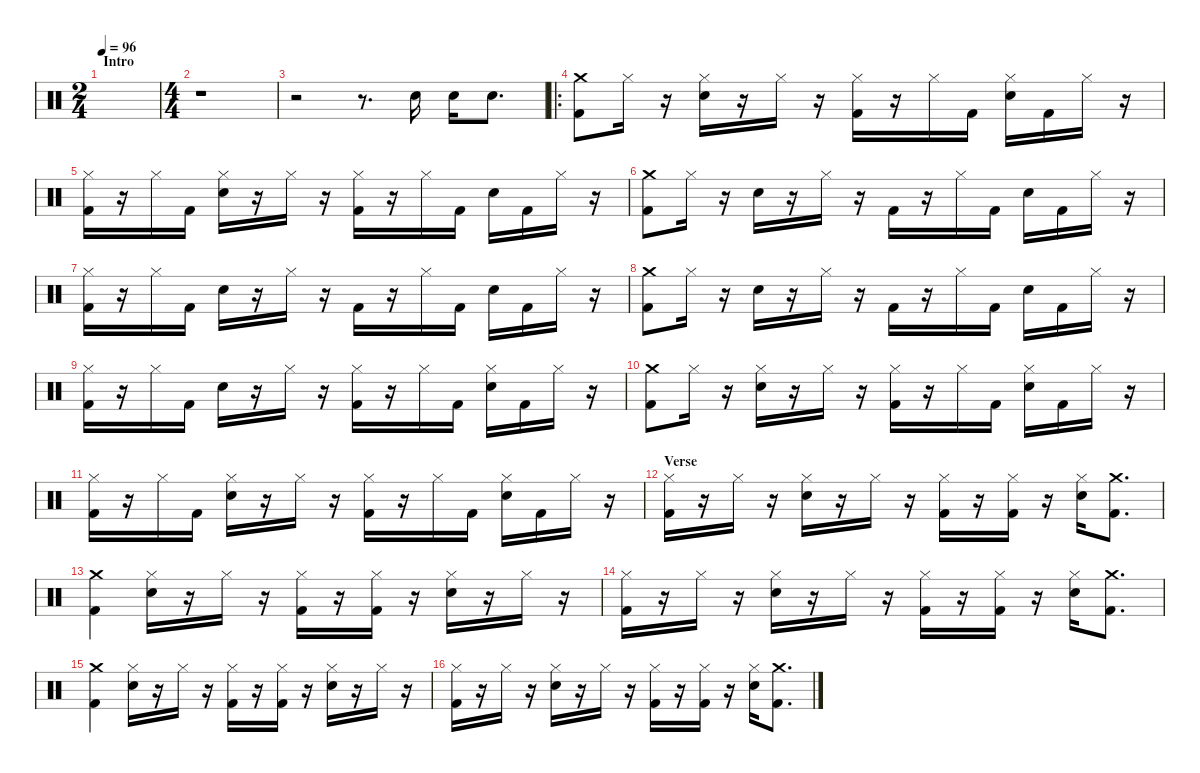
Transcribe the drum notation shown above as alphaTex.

\hideDynamics
\bracketExtendMode nobrackets
\singleTrackTrackNamePolicy hidden
\multiTrackTrackNamePolicy hidden
\firstSystemTrackNameMode fullname
\firstSystemTrackNameOrientation horizontal
\otherSystemsTrackNameOrientation horizontal
\track ("Drumkit" "Drums") {instrument percussion}
\staff {score}
\articulation defaults
\ts (2 4)
\section ("" "Intro")
\tempo 96
\clef neutral
\ks c
|
\ts (4 4)
r.1{beam Down} |
r.2{beam Down} r.8{d beam Down} "Snare (hit) 2".16{beam Down} "Snare (hit) 2".16{beam Down} "Snare (hit) 2".8{d beam Down} |
\ro
("Crash medium (hit)" "Kick (hit) 2").8{beam Down} "Hi-Hat (closed)".16{beam Down} r.16{beam Down} ("Snare (hit) 2" "Hi-Hat (closed)").16{beam Down} r.16{beam Down} "Hi-Hat (closed)".16{beam Down} r.16{beam Down} ("Kick (hit) 2" "Hi-Hat (closed)").16{beam Down} r.16{beam Down} "Hi-Hat (closed)".16{beam Down} "Kick (hit) 2".16{beam Down} ("Snare (hit) 2" "Hi-Hat (closed)").16{beam Down} "Kick (hit) 2".16{beam Down} "Hi-Hat (closed)".16{beam Down} r.16{beam Down} |
("Hi-Hat (closed)" "Kick (hit) 2").16{beam Down} r.16{beam Down} "Hi-Hat (closed)".16{beam Down} "Kick (hit) 2".16{beam Down} ("Snare (hit) 2" "Hi-Hat (closed)").16{beam Down} r.16{beam Down} "Hi-Hat (closed)".16{beam Down} r.16{beam Down} ("Kick (hit) 2" "Hi-Hat (closed)").16{beam Down} r.16{beam Down} "Hi-Hat (closed)".16{beam Down} "Kick (hit) 2".16{beam Down} "Snare (hit) 2".16{beam Down} "Kick (hit) 2".16{beam Down} "Hi-Hat (closed)".16{beam Down} r.16{beam Down} |
("Crash medium (hit)" "Kick (hit) 2").8{beam Down} "Hi-Hat (closed)".16{beam Down} r.16{beam Down} "Snare (hit) 2".16{beam Down} r.16{beam Down} "Hi-Hat (closed)".16{beam Down} r.16{beam Down} "Kick (hit) 2".16{beam Down} r.16{beam Down} "Hi-Hat (closed)".16{beam Down} "Kick (hit) 2".16{beam Down} "Snare (hit) 2".16{beam Down} "Kick (hit) 2".16{beam Down} "Hi-Hat (closed)".16{beam Down} r.16{beam Down} |
("Hi-Hat (closed)" "Kick (hit) 2").16{beam Down} r.16{beam Down} "Hi-Hat (closed)".16{beam Down} "Kick (hit) 2".16{beam Down} "Snare (hit) 2".16{beam Down} r.16{beam Down} "Hi-Hat (closed)".16{beam Down} r.16{beam Down} "Kick (hit) 2".16{beam Down} r.16{beam Down} "Hi-Hat (closed)".16{beam Down} "Kick (hit) 2".16{beam Down} "Snare (hit) 2".16{beam Down} "Kick (hit) 2".16{beam Down} "Hi-Hat (closed)".16{beam Down} r.16{beam Down} |
("Kick (hit) 2" "Crash medium (hit)").8{beam Down} "Hi-Hat (closed)".16{beam Down} r.16{beam Down} "Snare (hit) 2".16{beam Down} r.16{beam Down} "Hi-Hat (closed)".16{beam Down} r.16{beam Down} "Kick (hit) 2".16{beam Down} r.16{beam Down} "Hi-Hat (closed)".16{beam Down} "Kick (hit) 2".16{beam Down} "Snare (hit) 2".16{beam Down} "Kick (hit) 2".16{beam Down} "Hi-Hat (closed)".16{beam Down} r.16{beam Down} |
("Hi-Hat (closed)" "Kick (hit) 2").16{beam Down} r.16{beam Down} "Hi-Hat (closed)".16{beam Down} "Kick (hit) 2".16{beam Down} "Snare (hit) 2".16{beam Down} r.16{beam Down} "Hi-Hat (closed)".16{beam Down} r.16{beam Down} ("Kick (hit) 2" "Hi-Hat (closed)").16{beam Down} r.16{beam Down} "Hi-Hat (closed)".16{beam Down} "Kick (hit) 2".16{beam Down} ("Snare (hit) 2" "Hi-Hat (closed)").16{beam Down} "Kick (hit) 2".16{beam Down} "Hi-Hat (closed)".16{beam Down} r.16{beam Down} |
("Kick (hit) 2" "Crash medium (hit)").8{beam Down} "Hi-Hat (closed)".16{beam Down} r.16{beam Down} ("Snare (hit) 2" "Hi-Hat (closed)").16{beam Down} r.16{beam Down} "Hi-Hat (closed)".16{beam Down} r.16{beam Down} ("Kick (hit) 2" "Hi-Hat (closed)").16{beam Down} r.16{beam Down} "Hi-Hat (closed)".16{beam Down} "Kick (hit) 2".16{beam Down} ("Snare (hit) 2" "Hi-Hat (closed)").16{beam Down} "Kick (hit) 2".16{beam Down} "Hi-Hat (closed)".16{beam Down} r.16{beam Down} |
("Hi-Hat (closed)" "Kick (hit) 2").16{beam Down} r.16{beam Down} "Hi-Hat (closed)".16{beam Down} "Kick (hit) 2".16{beam Down} ("Snare (hit) 2" "Hi-Hat (closed)").16{beam Down} r.16{beam Down} "Hi-Hat (closed)".16{beam Down} r.16{beam Down} ("Kick (hit) 2" "Hi-Hat (closed)").16{beam Down} r.16{beam Down} "Hi-Hat (closed)".16{beam Down} "Kick (hit) 2".16{beam Down} ("Snare (hit) 2" "Hi-Hat (closed)").16{beam Down} "Kick (hit) 2".16{beam Down} "Hi-Hat (closed)".16{beam Down} r.16{beam Down} |
\section ("" "Verse")
\scale
0.245714 ("Hi-Hat (closed)" "Kick (hit) 2").16{beam Down} r.16{beam Down} "Hi-Hat (closed)".16{beam Down} r.16{beam Down} ("Snare (hit) 2" "Hi-Hat (closed)").16{beam Down} r.16{beam Down} "Hi-Hat (closed)".16{beam Down} r.16{beam Down} ("Kick (hit) 2" "Hi-Hat (closed)").16{beam Down} r.16{beam Down} ("Kick (hit) 2" "Hi-Hat (closed)").16{beam Down} r.16{beam Down} ("Hi-Hat (closed)" "Snare (hit) 2").16{beam Down} ("Crash medium (hit)" "Kick (hit) 2").8{d beam Down} |
\scale
0.254286 ("Crash medium (hit)" "Kick (hit) 2").4{beam Down} ("Snare (hit) 2" "Hi-Hat (closed)").16{beam Down} r.16{beam Down} "Hi-Hat (closed)".16{beam Down} r.16{beam Down} ("Kick (hit) 2" "Hi-Hat (closed)").16{beam Down} r.16{beam Down} ("Kick (hit) 2" "Hi-Hat (closed)").16{beam Down} r.16{beam Down} ("Snare (hit) 2" "Hi-Hat (closed)").16{beam Down} r.16{beam Down} "Hi-Hat (closed)".16{beam Down} r.16{beam Down} |
\scale
0.25 ("Hi-Hat (closed)" "Kick (hit) 2").16{beam Down} r.16{beam Down} "Hi-Hat (closed)".16{beam Down} r.16{beam Down} ("Snare (hit) 2" "Hi-Hat (closed)").16{beam Down} r.16{beam Down} "Hi-Hat (closed)".16{beam Down} r.16{beam Down} ("Hi-Hat (closed)" "Kick (hit) 2").16{beam Down} r.16{beam Down} ("Kick (hit) 2" "Hi-Hat (closed)").16{beam Down} r.16{beam Down} ("Hi-Hat (closed)" "Snare (hit) 2").16{beam Down} ("Crash medium (hit)" "Kick (hit) 2").8{d beam Down} |
\scale
0.25 ("Crash medium (hit)" "Kick (hit) 2").4{beam Down} ("Snare (hit) 2" "Hi-Hat (closed)").16{beam Down} r.16{beam Down} "Hi-Hat (closed)".16{beam Down} r.16{beam Down} ("Kick (hit) 2" "Hi-Hat (closed)").16{beam Down} r.16{beam Down} ("Kick (hit) 2" "Hi-Hat (closed)").16{beam Down} r.16{beam Down} ("Snare (hit) 2" "Hi-Hat (closed)").16{beam Down} r.16{beam Down} "Hi-Hat (closed)".16{beam Down} r.16{beam Down} |
("Hi-Hat (closed)" "Kick (hit) 2").16{beam Down} r.16{beam Down} "Hi-Hat (closed)".16{beam Down} r.16{beam Down} ("Snare (hit) 2" "Hi-Hat (closed)").16{beam Down} r.16{beam Down} "Hi-Hat (closed)".16{beam Down} r.16{beam Down} ("Hi-Hat (closed)" "Kick (hit) 2").16{beam Down} r.16{beam Down} ("Kick (hit) 2" "Hi-Hat (closed)").16{beam Down} r.16{beam Down} ("Hi-Hat (closed)" "Snare (hit) 2").16{beam Down} ("Crash medium (hit)" "Kick (hit) 2").8{d beam Down}
